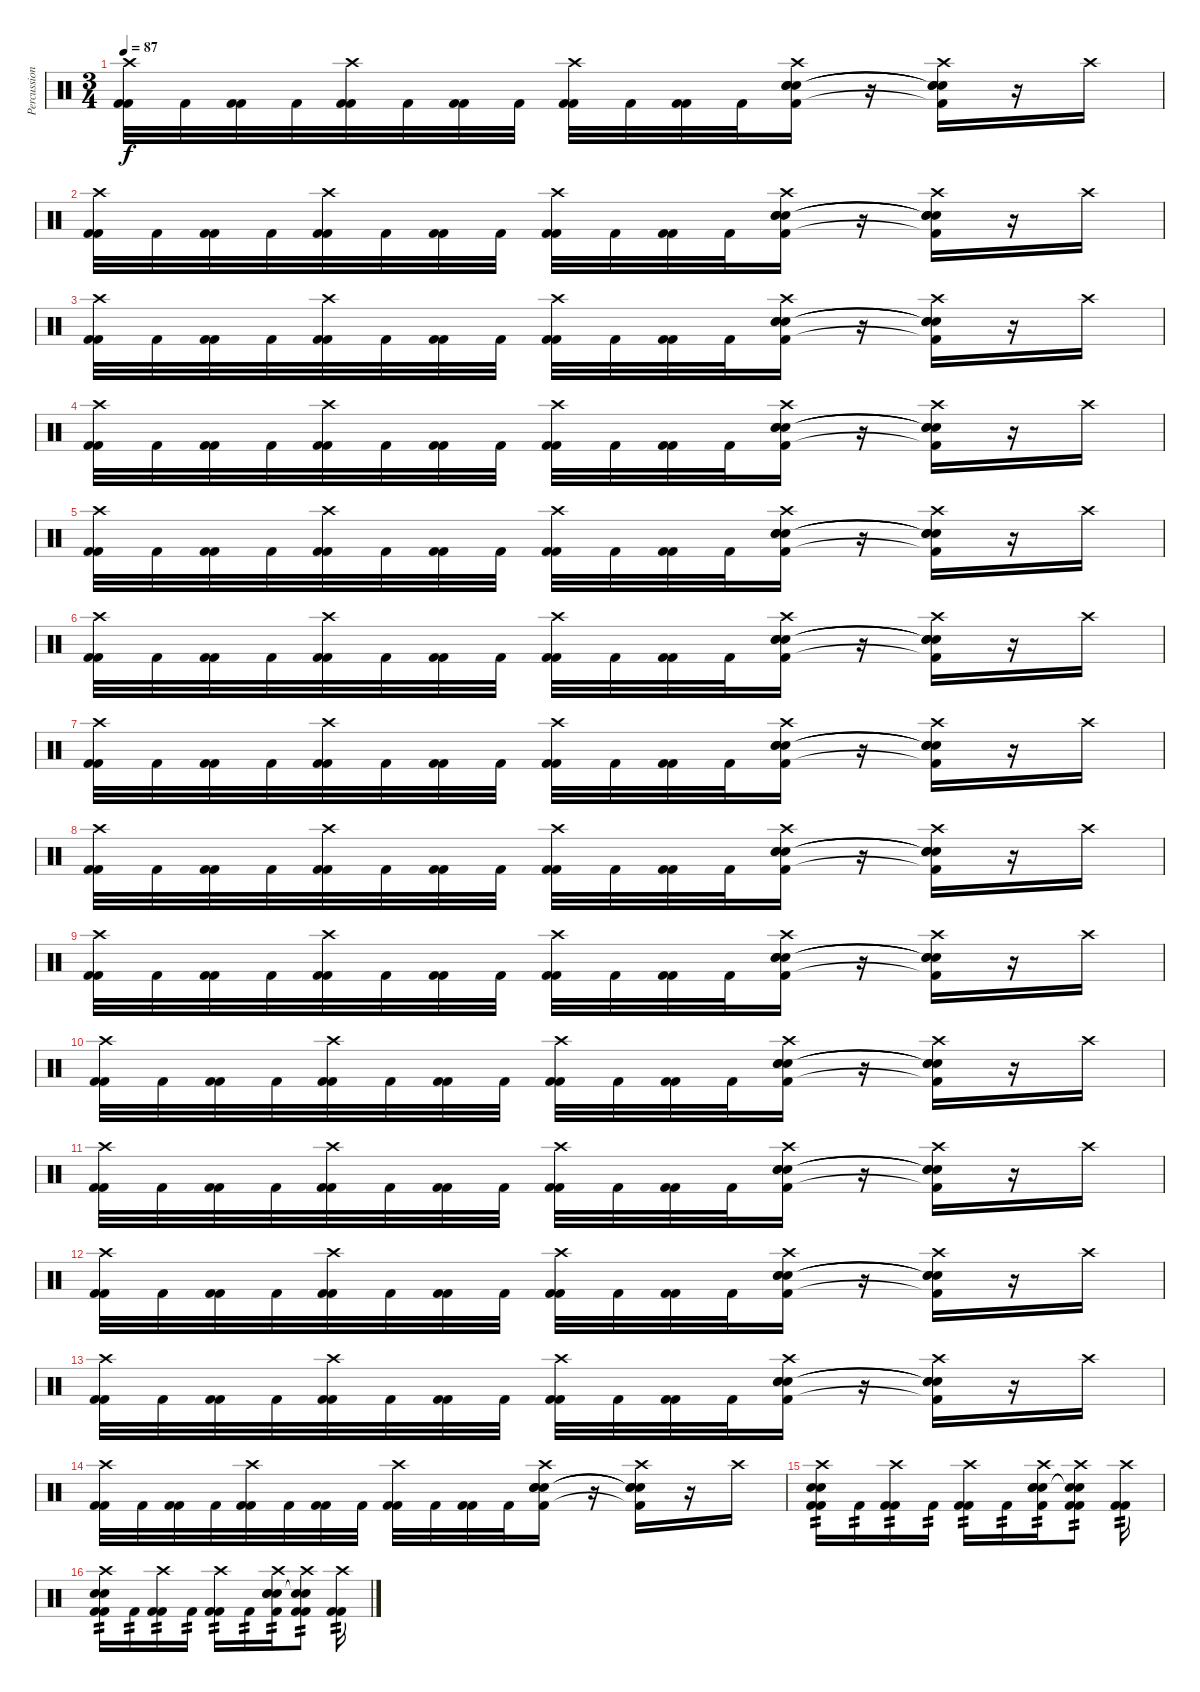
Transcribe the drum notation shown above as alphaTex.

\track ("Percussion" "Percussion") {instrument percussion}
\staff {score}
\articulation defaults
\ts (3 4)
\tempo 87
\clef neutral
\ks c
("Crash high (hit)" "Kick (hit) 2" "Kick (hit) 2").32{dy f} "Kick (hit) 2".32 ("Kick (hit) 2" "Kick (hit) 2").32 "Kick (hit) 2".32 ("Crash high (hit)" "Kick (hit) 2" "Kick (hit) 2").32 "Kick (hit) 2".32 ("Kick (hit) 2" "Kick (hit) 2").32 "Kick (hit) 2".32 ("Crash high (hit)" "Kick (hit) 2" "Kick (hit) 2").32 "Kick (hit) 2".32 ("Kick (hit) 2" "Kick (hit) 2").32 "Kick (hit) 2".32 ("Crash high (hit)" "Snare (hit) 2" "Snare (hit) 2" "Snare (hit) 2" "Kick (hit) 2").16 r.16 ("Crash high (hit)" "Snare (hit) 2"{t} "Snare (hit) 2"{t} "Snare (hit) 2"{t} "Kick (hit) 2"{t}).16 r.16 "Crash high (hit)".16 |
("Crash high (hit)" "Kick (hit) 2" "Kick (hit) 2").32 "Kick (hit) 2".32 ("Kick (hit) 2" "Kick (hit) 2").32 "Kick (hit) 2".32 ("Crash high (hit)" "Kick (hit) 2" "Kick (hit) 2").32 "Kick (hit) 2".32 ("Kick (hit) 2" "Kick (hit) 2").32 "Kick (hit) 2".32 ("Crash high (hit)" "Kick (hit) 2" "Kick (hit) 2").32 "Kick (hit) 2".32 ("Kick (hit) 2" "Kick (hit) 2").32 "Kick (hit) 2".32 ("Crash high (hit)" "Snare (hit) 2" "Snare (hit) 2" "Snare (hit) 2" "Kick (hit) 2").16 r.16 ("Crash high (hit)" "Snare (hit) 2"{t} "Snare (hit) 2"{t} "Snare (hit) 2"{t} "Kick (hit) 2"{t}).16 r.16 "Crash high (hit)".16 |
("Crash high (hit)" "Kick (hit) 2" "Kick (hit) 2").32 "Kick (hit) 2".32 ("Kick (hit) 2" "Kick (hit) 2").32 "Kick (hit) 2".32 ("Crash high (hit)" "Kick (hit) 2" "Kick (hit) 2").32 "Kick (hit) 2".32 ("Kick (hit) 2" "Kick (hit) 2").32 "Kick (hit) 2".32 ("Crash high (hit)" "Kick (hit) 2" "Kick (hit) 2").32 "Kick (hit) 2".32 ("Kick (hit) 2" "Kick (hit) 2").32 "Kick (hit) 2".32 ("Crash high (hit)" "Snare (hit) 2" "Snare (hit) 2" "Snare (hit) 2" "Kick (hit) 2").16 r.16 ("Crash high (hit)" "Snare (hit) 2"{t} "Snare (hit) 2"{t} "Snare (hit) 2"{t} "Kick (hit) 2"{t}).16 r.16 "Crash high (hit)".16 |
("Crash high (hit)" "Kick (hit) 2" "Kick (hit) 2").32 "Kick (hit) 2".32 ("Kick (hit) 2" "Kick (hit) 2").32 "Kick (hit) 2".32 ("Crash high (hit)" "Kick (hit) 2" "Kick (hit) 2").32 "Kick (hit) 2".32 ("Kick (hit) 2" "Kick (hit) 2").32 "Kick (hit) 2".32 ("Crash high (hit)" "Kick (hit) 2" "Kick (hit) 2").32 "Kick (hit) 2".32 ("Kick (hit) 2" "Kick (hit) 2").32 "Kick (hit) 2".32 ("Crash high (hit)" "Snare (hit) 2" "Snare (hit) 2" "Snare (hit) 2" "Kick (hit) 2").16 r.16 ("Crash high (hit)" "Snare (hit) 2"{t} "Snare (hit) 2"{t} "Snare (hit) 2"{t} "Kick (hit) 2"{t}).16 r.16 "Crash high (hit)".16 |
("Crash high (hit)" "Kick (hit) 2" "Kick (hit) 2").32 "Kick (hit) 2".32 ("Kick (hit) 2" "Kick (hit) 2").32 "Kick (hit) 2".32 ("Crash high (hit)" "Kick (hit) 2" "Kick (hit) 2").32 "Kick (hit) 2".32 ("Kick (hit) 2" "Kick (hit) 2").32 "Kick (hit) 2".32 ("Crash high (hit)" "Kick (hit) 2" "Kick (hit) 2").32 "Kick (hit) 2".32 ("Kick (hit) 2" "Kick (hit) 2").32 "Kick (hit) 2".32 ("Crash high (hit)" "Snare (hit) 2" "Snare (hit) 2" "Snare (hit) 2" "Kick (hit) 2").16 r.16 ("Crash high (hit)" "Snare (hit) 2"{t} "Snare (hit) 2"{t} "Snare (hit) 2"{t} "Kick (hit) 2"{t}).16 r.16 "Crash high (hit)".16 |
("Crash high (hit)" "Kick (hit) 2" "Kick (hit) 2").32 "Kick (hit) 2".32 ("Kick (hit) 2" "Kick (hit) 2").32 "Kick (hit) 2".32 ("Crash high (hit)" "Kick (hit) 2" "Kick (hit) 2").32 "Kick (hit) 2".32 ("Kick (hit) 2" "Kick (hit) 2").32 "Kick (hit) 2".32 ("Crash high (hit)" "Kick (hit) 2" "Kick (hit) 2").32 "Kick (hit) 2".32 ("Kick (hit) 2" "Kick (hit) 2").32 "Kick (hit) 2".32 ("Crash high (hit)" "Snare (hit) 2" "Snare (hit) 2" "Snare (hit) 2" "Kick (hit) 2").16 r.16 ("Crash high (hit)" "Snare (hit) 2"{t} "Snare (hit) 2"{t} "Snare (hit) 2"{t} "Kick (hit) 2"{t}).16 r.16 "Crash high (hit)".16 |
("Crash high (hit)" "Kick (hit) 2" "Kick (hit) 2").32 "Kick (hit) 2".32 ("Kick (hit) 2" "Kick (hit) 2").32 "Kick (hit) 2".32 ("Crash high (hit)" "Kick (hit) 2" "Kick (hit) 2").32 "Kick (hit) 2".32 ("Kick (hit) 2" "Kick (hit) 2").32 "Kick (hit) 2".32 ("Crash high (hit)" "Kick (hit) 2" "Kick (hit) 2").32 "Kick (hit) 2".32 ("Kick (hit) 2" "Kick (hit) 2").32 "Kick (hit) 2".32 ("Crash high (hit)" "Snare (hit) 2" "Snare (hit) 2" "Snare (hit) 2" "Kick (hit) 2").16 r.16 ("Crash high (hit)" "Snare (hit) 2"{t} "Snare (hit) 2"{t} "Snare (hit) 2"{t} "Kick (hit) 2"{t}).16 r.16 "Crash high (hit)".16 |
("Crash high (hit)" "Kick (hit) 2" "Kick (hit) 2").32 "Kick (hit) 2".32 ("Kick (hit) 2" "Kick (hit) 2").32 "Kick (hit) 2".32 ("Crash high (hit)" "Kick (hit) 2" "Kick (hit) 2").32 "Kick (hit) 2".32 ("Kick (hit) 2" "Kick (hit) 2").32 "Kick (hit) 2".32 ("Crash high (hit)" "Kick (hit) 2" "Kick (hit) 2").32 "Kick (hit) 2".32 ("Kick (hit) 2" "Kick (hit) 2").32 "Kick (hit) 2".32 ("Crash high (hit)" "Snare (hit) 2" "Snare (hit) 2" "Snare (hit) 2" "Kick (hit) 2").16 r.16 ("Crash high (hit)" "Snare (hit) 2"{t} "Snare (hit) 2"{t} "Snare (hit) 2"{t} "Kick (hit) 2"{t}).16 r.16 "Crash high (hit)".16 |
("Crash high (hit)" "Kick (hit) 2" "Kick (hit) 2").32 "Kick (hit) 2".32 ("Kick (hit) 2" "Kick (hit) 2").32 "Kick (hit) 2".32 ("Crash high (hit)" "Kick (hit) 2" "Kick (hit) 2").32 "Kick (hit) 2".32 ("Kick (hit) 2" "Kick (hit) 2").32 "Kick (hit) 2".32 ("Crash high (hit)" "Kick (hit) 2" "Kick (hit) 2").32 "Kick (hit) 2".32 ("Kick (hit) 2" "Kick (hit) 2").32 "Kick (hit) 2".32 ("Crash high (hit)" "Snare (hit) 2" "Snare (hit) 2" "Snare (hit) 2" "Kick (hit) 2").16 r.16 ("Crash high (hit)" "Snare (hit) 2"{t} "Snare (hit) 2"{t} "Snare (hit) 2"{t} "Kick (hit) 2"{t}).16 r.16 "Crash high (hit)".16 |
("Crash high (hit)" "Kick (hit) 2" "Kick (hit) 2").32 "Kick (hit) 2".32 ("Kick (hit) 2" "Kick (hit) 2").32 "Kick (hit) 2".32 ("Crash high (hit)" "Kick (hit) 2" "Kick (hit) 2").32 "Kick (hit) 2".32 ("Kick (hit) 2" "Kick (hit) 2").32 "Kick (hit) 2".32 ("Crash high (hit)" "Kick (hit) 2" "Kick (hit) 2").32 "Kick (hit) 2".32 ("Kick (hit) 2" "Kick (hit) 2").32 "Kick (hit) 2".32 ("Crash high (hit)" "Snare (hit) 2" "Snare (hit) 2" "Snare (hit) 2" "Kick (hit) 2").16 r.16 ("Crash high (hit)" "Snare (hit) 2"{t} "Snare (hit) 2"{t} "Snare (hit) 2"{t} "Kick (hit) 2"{t}).16 r.16 "Crash high (hit)".16 |
("Crash high (hit)" "Kick (hit) 2" "Kick (hit) 2").32 "Kick (hit) 2".32 ("Kick (hit) 2" "Kick (hit) 2").32 "Kick (hit) 2".32 ("Crash high (hit)" "Kick (hit) 2" "Kick (hit) 2").32 "Kick (hit) 2".32 ("Kick (hit) 2" "Kick (hit) 2").32 "Kick (hit) 2".32 ("Crash high (hit)" "Kick (hit) 2" "Kick (hit) 2").32 "Kick (hit) 2".32 ("Kick (hit) 2" "Kick (hit) 2").32 "Kick (hit) 2".32 ("Crash high (hit)" "Snare (hit) 2" "Snare (hit) 2" "Snare (hit) 2" "Kick (hit) 2").16 r.16 ("Crash high (hit)" "Snare (hit) 2"{t} "Snare (hit) 2"{t} "Snare (hit) 2"{t} "Kick (hit) 2"{t}).16 r.16 "Crash high (hit)".16 |
("Crash high (hit)" "Kick (hit) 2" "Kick (hit) 2").32 "Kick (hit) 2".32 ("Kick (hit) 2" "Kick (hit) 2").32 "Kick (hit) 2".32 ("Crash high (hit)" "Kick (hit) 2" "Kick (hit) 2").32 "Kick (hit) 2".32 ("Kick (hit) 2" "Kick (hit) 2").32 "Kick (hit) 2".32 ("Crash high (hit)" "Kick (hit) 2" "Kick (hit) 2").32 "Kick (hit) 2".32 ("Kick (hit) 2" "Kick (hit) 2").32 "Kick (hit) 2".32 ("Crash high (hit)" "Snare (hit) 2" "Snare (hit) 2" "Snare (hit) 2" "Kick (hit) 2").16 r.16 ("Crash high (hit)" "Snare (hit) 2"{t} "Snare (hit) 2"{t} "Snare (hit) 2"{t} "Kick (hit) 2"{t}).16 r.16 "Crash high (hit)".16 |
("Crash high (hit)" "Kick (hit) 2" "Kick (hit) 2").32 "Kick (hit) 2".32 ("Kick (hit) 2" "Kick (hit) 2").32 "Kick (hit) 2".32 ("Crash high (hit)" "Kick (hit) 2" "Kick (hit) 2").32 "Kick (hit) 2".32 ("Kick (hit) 2" "Kick (hit) 2").32 "Kick (hit) 2".32 ("Crash high (hit)" "Kick (hit) 2" "Kick (hit) 2").32 "Kick (hit) 2".32 ("Kick (hit) 2" "Kick (hit) 2").32 "Kick (hit) 2".32 ("Crash high (hit)" "Snare (hit) 2" "Snare (hit) 2" "Snare (hit) 2" "Kick (hit) 2").16 r.16 ("Crash high (hit)" "Snare (hit) 2"{t} "Snare (hit) 2"{t} "Snare (hit) 2"{t} "Kick (hit) 2"{t}).16 r.16 "Crash high (hit)".16 |
("Crash high (hit)" "Kick (hit) 2" "Kick (hit) 2").32 "Kick (hit) 2".32 ("Kick (hit) 2" "Kick (hit) 2").32 "Kick (hit) 2".32 ("Crash high (hit)" "Kick (hit) 2" "Kick (hit) 2").32 "Kick (hit) 2".32 ("Kick (hit) 2" "Kick (hit) 2").32 "Kick (hit) 2".32 ("Crash high (hit)" "Kick (hit) 2" "Kick (hit) 2").32 "Kick (hit) 2".32 ("Kick (hit) 2" "Kick (hit) 2").32 "Kick (hit) 2".32 ("Crash high (hit)" "Snare (hit) 2" "Snare (hit) 2" "Snare (hit) 2" "Kick (hit) 2").16 r.16 ("Crash high (hit)" "Snare (hit) 2"{t} "Snare (hit) 2"{t} "Snare (hit) 2"{t} "Kick (hit) 2"{t}).16 r.16 "Crash high (hit)".16 |
("Crash high (hit)" "Snare (hit) 2" "Snare (hit) 2" "Kick (hit) 2" "Kick (hit) 2").16{tp 2 volume 0} "Kick (hit) 2".16{tp 2} ("Crash high (hit)" "Kick (hit) 2" "Kick (hit) 2").16{tp 2} "Kick (hit) 2".16{tp 2} ("Crash high (hit)" "Kick (hit) 2" "Kick (hit) 2").16{tp 2} "Kick (hit) 2".16{tp 2} ("Crash high (hit)" "Snare (hit) 2" "Snare (hit) 2" "Snare (hit) 2" "Kick (hit) 2").16{tp 2} ("Crash high (hit)" "Snare (hit) 2"{t} "Snare (hit) 2"{t} "Kick (hit) 2" "Kick (hit) 2").8{tp 2} ("Crash high (hit)" "Kick (hit) 2" "Kick (hit) 2").16{tp 2} |
("Crash high (hit)" "Snare (hit) 2" "Snare (hit) 2" "Kick (hit) 2" "Kick (hit) 2").16{tp 2 volume 0} "Kick (hit) 2".16{tp 2} ("Crash high (hit)" "Kick (hit) 2" "Kick (hit) 2").16{tp 2} "Kick (hit) 2".16{tp 2} ("Crash high (hit)" "Kick (hit) 2" "Kick (hit) 2").16{tp 2} "Kick (hit) 2".16{tp 2} ("Crash high (hit)" "Snare (hit) 2" "Snare (hit) 2" "Snare (hit) 2" "Kick (hit) 2").16{tp 2} ("Crash high (hit)" "Snare (hit) 2"{t} "Snare (hit) 2"{t} "Kick (hit) 2" "Kick (hit) 2").8{tp 2} ("Crash high (hit)" "Kick (hit) 2" "Kick (hit) 2").16{tp 2}
